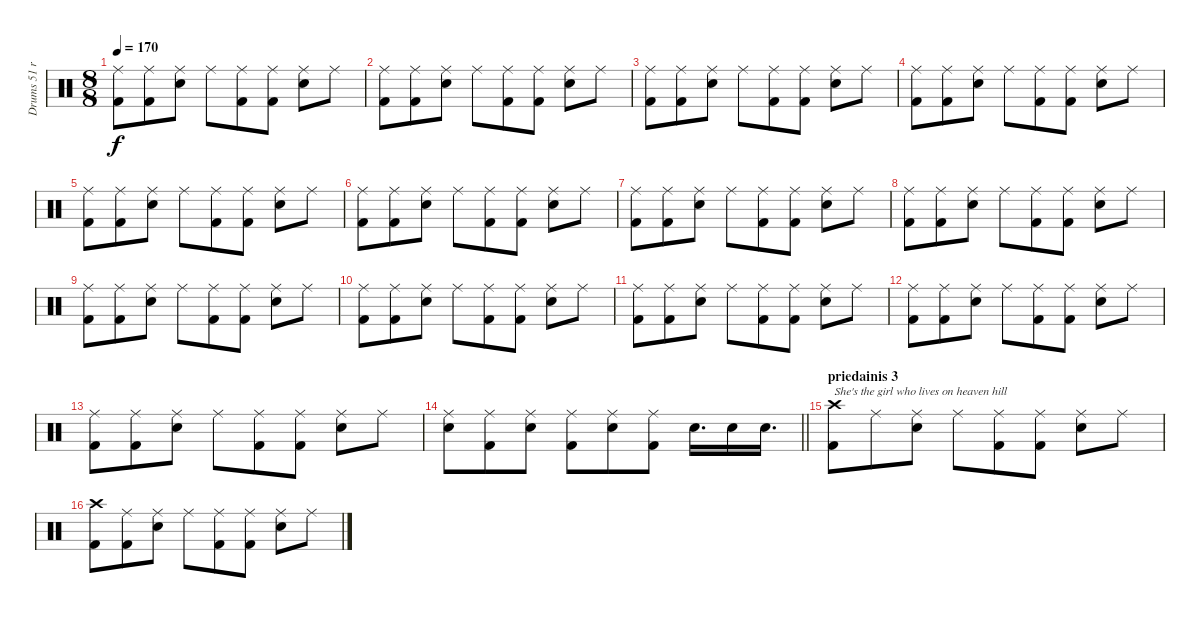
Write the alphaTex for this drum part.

\track ("Drums 51 ride ALBUM" "Drums 51 r") {mute instrument percussion}
\staff {score}
\articulation defaults
\ts (8 8)
\tempo 170
\clef neutral
\ks c
("Ride (middle)" "Kick (hit) 2").8{dy f} ("Ride (middle)" "Kick (hit) 2").8 ("Ride (middle)" "Snare (hit) 2").8 "Ride (middle)".8 ("Ride (middle)" "Kick (hit) 2").8 ("Ride (middle)" "Kick (hit) 2").8 ("Ride (middle)" "Snare (hit) 2").8 "Ride (middle)".8 |
("Ride (middle)" "Kick (hit) 2").8 ("Ride (middle)" "Kick (hit) 2").8 ("Ride (middle)" "Snare (hit) 2").8 "Ride (middle)".8 ("Ride (middle)" "Kick (hit) 2").8 ("Ride (middle)" "Kick (hit) 2").8 ("Ride (middle)" "Snare (hit) 2").8 "Ride (middle)".8 |
("Ride (middle)" "Kick (hit) 2").8 ("Ride (middle)" "Kick (hit) 2").8 ("Ride (middle)" "Snare (hit) 2").8 "Ride (middle)".8 ("Ride (middle)" "Kick (hit) 2").8 ("Ride (middle)" "Kick (hit) 2").8 ("Ride (middle)" "Snare (hit) 2").8 "Ride (middle)".8 |
("Ride (middle)" "Kick (hit) 2").8 ("Ride (middle)" "Kick (hit) 2").8 ("Ride (middle)" "Snare (hit) 2").8 "Ride (middle)".8 ("Ride (middle)" "Kick (hit) 2").8 ("Ride (middle)" "Kick (hit) 2").8 ("Ride (middle)" "Snare (hit) 2").8 "Ride (middle)".8 |
("Ride (middle)" "Kick (hit) 2").8 ("Ride (middle)" "Kick (hit) 2").8 ("Ride (middle)" "Snare (hit) 2").8 "Ride (middle)".8 ("Ride (middle)" "Kick (hit) 2").8 ("Ride (middle)" "Kick (hit) 2").8 ("Ride (middle)" "Snare (hit) 2").8 "Ride (middle)".8 |
("Ride (middle)" "Kick (hit) 2").8 ("Ride (middle)" "Kick (hit) 2").8 ("Ride (middle)" "Snare (hit) 2").8 "Ride (middle)".8 ("Ride (middle)" "Kick (hit) 2").8 ("Ride (middle)" "Kick (hit) 2").8 ("Ride (middle)" "Snare (hit) 2").8 "Ride (middle)".8 |
("Ride (middle)" "Kick (hit) 2").8 ("Ride (middle)" "Kick (hit) 2").8 ("Ride (middle)" "Snare (hit) 2").8 "Ride (middle)".8 ("Ride (middle)" "Kick (hit) 2").8 ("Ride (middle)" "Kick (hit) 2").8 ("Ride (middle)" "Snare (hit) 2").8 "Ride (middle)".8 |
("Ride (middle)" "Kick (hit) 2").8 ("Ride (middle)" "Kick (hit) 2").8 ("Ride (middle)" "Snare (hit) 2").8 "Ride (middle)".8 ("Ride (middle)" "Kick (hit) 2").8 ("Ride (middle)" "Kick (hit) 2").8 ("Ride (middle)" "Snare (hit) 2").8 "Ride (middle)".8 |
("Ride (middle)" "Kick (hit) 2").8 ("Ride (middle)" "Kick (hit) 2").8 ("Ride (middle)" "Snare (hit) 2").8 "Ride (middle)".8 ("Ride (middle)" "Kick (hit) 2").8 ("Ride (middle)" "Kick (hit) 2").8 ("Ride (middle)" "Snare (hit) 2").8 "Ride (middle)".8 |
("Ride (middle)" "Kick (hit) 2").8 ("Ride (middle)" "Kick (hit) 2").8 ("Ride (middle)" "Snare (hit) 2").8 "Ride (middle)".8 ("Ride (middle)" "Kick (hit) 2").8 ("Ride (middle)" "Kick (hit) 2").8 ("Ride (middle)" "Snare (hit) 2").8 "Ride (middle)".8 |
("Ride (middle)" "Kick (hit) 2").8 ("Ride (middle)" "Kick (hit) 2").8 ("Ride (middle)" "Snare (hit) 2").8 "Ride (middle)".8 ("Ride (middle)" "Kick (hit) 2").8 ("Ride (middle)" "Kick (hit) 2").8 ("Ride (middle)" "Snare (hit) 2").8 "Ride (middle)".8 |
("Ride (middle)" "Kick (hit) 2").8 ("Ride (middle)" "Kick (hit) 2").8 ("Ride (middle)" "Snare (hit) 2").8 "Ride (middle)".8 ("Ride (middle)" "Kick (hit) 2").8 ("Ride (middle)" "Kick (hit) 2").8 ("Ride (middle)" "Snare (hit) 2").8 "Ride (middle)".8 |
("Ride (middle)" "Kick (hit) 2").8 ("Ride (middle)" "Kick (hit) 2").8 ("Ride (middle)" "Snare (hit) 2").8 "Ride (middle)".8 ("Ride (middle)" "Kick (hit) 2").8 ("Ride (middle)" "Kick (hit) 2").8 ("Ride (middle)" "Snare (hit) 2").8 "Ride (middle)".8 |
\barLineRight lightlight
("Ride (middle)" "Snare (hit) 2").8 ("Ride (middle)" "Kick (hit) 2").8 ("Ride (middle)" "Snare (hit) 2").8 ("Ride (middle)" "Kick (hit) 2").8 ("Ride (middle)" "Snare (hit) 2").8 ("Ride (middle)" "Kick (hit) 2").8 "Snare (hit) 2".16{d} "Snare (hit) 2".16 "Snare (hit) 2".16{d} |
\section ("" "priedainis 3")
("Crash high (hit)" "Kick (hit) 2").8{txt "She's the girl who lives on heaven hill"} "Ride (middle)".8 ("Ride (middle)" "Snare (hit) 2").8 "Ride (middle)".8 ("Ride (middle)" "Kick (hit) 2").8 ("Ride (middle)" "Kick (hit) 2").8 ("Ride (middle)" "Snare (hit) 2").8 "Ride (middle)".8 |
("Crash high (hit)" "Kick (hit) 2").8 ("Ride (middle)" "Kick (hit) 2").8 ("Ride (middle)" "Snare (hit) 2").8 "Ride (middle)".8 ("Ride (middle)" "Kick (hit) 2").8 ("Ride (middle)" "Kick (hit) 2").8 ("Ride (middle)" "Snare (hit) 2").8 "Ride (middle)".8
